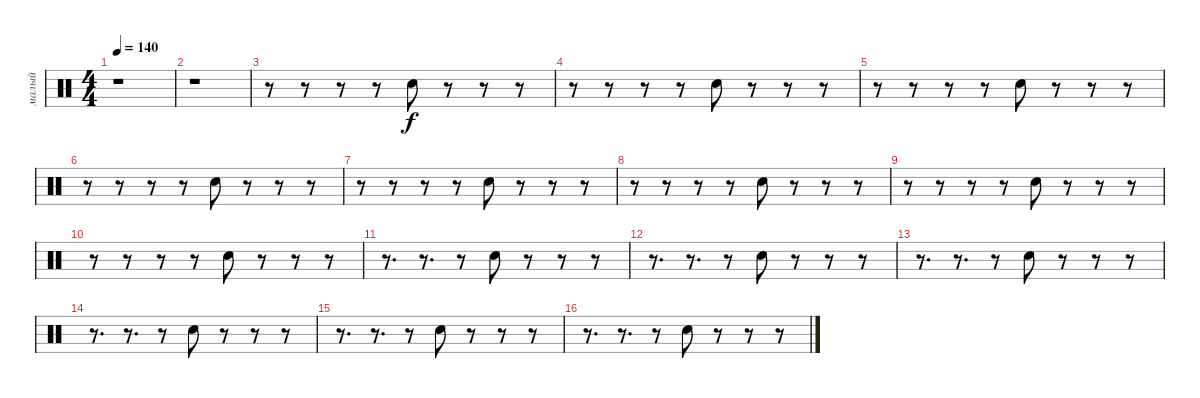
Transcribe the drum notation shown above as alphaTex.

\track ("малый" "малый") {mute instrument percussion}
\staff {score}
\articulation defaults
\ts (4 4)
\tempo 140
\clef neutral
\ks c
r.1{dy f} |
r.1 |
r.8 r.8 r.8 r.8 "Electric Snare (hit)".8 r.8 r.8 r.8 |
r.8 r.8 r.8 r.8 "Electric Snare (hit)".8 r.8 r.8 r.8 |
r.8 r.8 r.8 r.8 "Electric Snare (hit)".8 r.8 r.8 r.8 |
r.8 r.8 r.8 r.8 "Electric Snare (hit)".8 r.8 r.8 r.8 |
r.8 r.8 r.8 r.8 "Electric Snare (hit)".8 r.8 r.8 r.8 |
r.8 r.8 r.8 r.8 "Electric Snare (hit)".8 r.8 r.8 r.8 |
r.8 r.8 r.8 r.8 "Electric Snare (hit)".8 r.8 r.8 r.8 |
r.8 r.8 r.8 r.8 "Electric Snare (hit)".8 r.8 r.8 r.8 |
r.8{d} r.8{d} r.8 "Electric Snare (hit)".8 r.8 r.8 r.8 |
r.8{d} r.8{d} r.8 "Electric Snare (hit)".8 r.8 r.8 r.8 |
r.8{d} r.8{d} r.8 "Electric Snare (hit)".8 r.8 r.8 r.8 |
r.8{d} r.8{d} r.8 "Electric Snare (hit)".8 r.8 r.8 r.8 |
r.8{d} r.8{d} r.8 "Electric Snare (hit)".8 r.8 r.8 r.8 |
r.8{d} r.8{d} r.8 "Electric Snare (hit)".8 r.8 r.8 r.8
